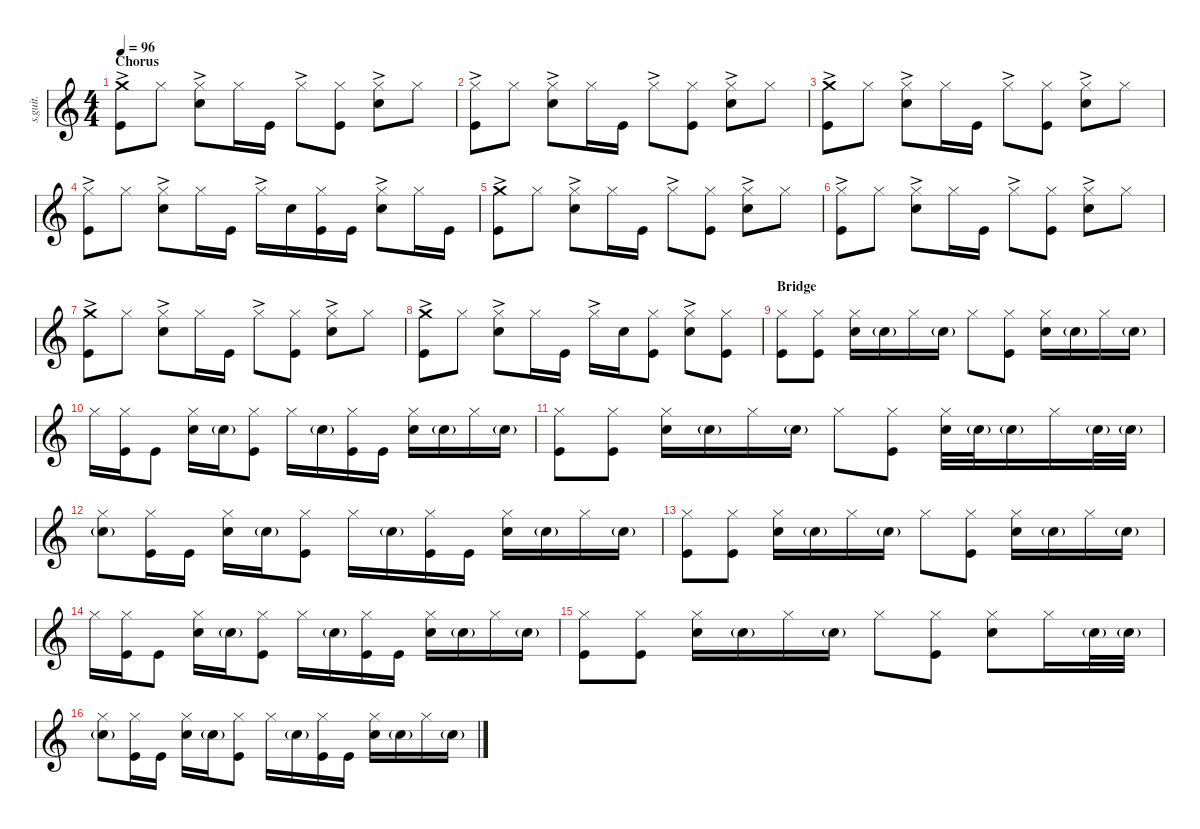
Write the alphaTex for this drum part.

\defaultSystemsLayout 4
\hideDynamics
\bracketExtendMode nobrackets
\track ("Chad Smith" "s.guit.") {instrument percussion}
\staff {score}
\articulation defaults
\ts (4 4)
\section ("" "Chorus")
\tempo 96
\clef g2
\ks c
("Crash medium (hit)"{ac} "Kick (hit)").8{dy f} "Hi-Hat (closed)".8 ("Hi-Hat (closed)"{ac} "Snare (hit) 2").8 "Hi-Hat (closed)".16 "Kick (hit)".16 "Hi-Hat (closed)"{ac}.8 ("Hi-Hat (closed)" "Kick (hit)").8 ("Hi-Hat (closed)"{ac} "Snare (hit) 2").8 "Hi-Hat (closed)".8 |
("Hi-Hat (closed)"{ac} "Kick (hit)").8 "Hi-Hat (closed)".8 ("Hi-Hat (closed)"{ac} "Snare (hit) 2").8 "Hi-Hat (closed)".16 "Kick (hit)".16 "Hi-Hat (closed)"{ac}.8 ("Hi-Hat (closed)" "Kick (hit)").8 ("Hi-Hat (closed)"{ac} "Snare (hit) 2").8 "Hi-Hat (closed)".8 |
("Crash medium (hit)"{ac} "Kick (hit)").8 "Hi-Hat (closed)".8 ("Hi-Hat (closed)"{ac} "Snare (hit) 2").8 "Hi-Hat (closed)".16 "Kick (hit)".16 "Hi-Hat (closed)"{ac}.8 ("Hi-Hat (closed)" "Kick (hit)").8 ("Hi-Hat (closed)"{ac} "Snare (hit) 2").8 "Hi-Hat (closed)".8 |
("Hi-Hat (closed)"{ac} "Kick (hit)").8 "Hi-Hat (closed)".8 ("Hi-Hat (closed)"{ac} "Snare (hit) 2").8 "Hi-Hat (closed)".16 "Kick (hit)".16 "Hi-Hat (closed)"{ac}.16 "Snare (hit) 2".16 ("Hi-Hat (closed)" "Kick (hit)").16 "Kick (hit)".16 ("Hi-Hat (closed)"{ac} "Snare (hit) 2").8 "Hi-Hat (closed)".16 "Kick (hit)".16 |
("Crash medium (hit)"{ac} "Kick (hit)").8 "Hi-Hat (closed)".8 ("Hi-Hat (closed)"{ac} "Snare (hit) 2").8 "Hi-Hat (closed)".16 "Kick (hit)".16 "Hi-Hat (closed)"{ac}.8 ("Hi-Hat (closed)" "Kick (hit)").8 ("Hi-Hat (closed)"{ac} "Snare (hit) 2").8 "Hi-Hat (closed)".8 |
("Hi-Hat (closed)"{ac} "Kick (hit)").8 "Hi-Hat (closed)".8 ("Hi-Hat (closed)"{ac} "Snare (hit) 2").8 "Hi-Hat (closed)".16 "Kick (hit)".16 "Hi-Hat (closed)"{ac}.8 ("Hi-Hat (closed)" "Kick (hit)").8 ("Hi-Hat (closed)"{ac} "Snare (hit) 2").8 "Hi-Hat (closed)".8 |
("Crash medium (hit)"{ac} "Kick (hit)").8 "Hi-Hat (closed)".8 ("Hi-Hat (closed)"{ac} "Snare (hit) 2").8 "Hi-Hat (closed)".16 "Kick (hit)".16 "Hi-Hat (closed)"{ac}.8 ("Hi-Hat (closed)" "Kick (hit)").8 ("Hi-Hat (closed)"{ac} "Snare (hit) 2").8 "Hi-Hat (closed)".8 |
("Crash medium (hit)"{ac} "Kick (hit)").8 "Hi-Hat (closed)".8 ("Hi-Hat (closed)"{ac} "Snare (hit) 2").8 "Hi-Hat (closed)".16 "Kick (hit)".16 "Hi-Hat (closed)"{ac}.16 "Snare (hit) 2".16 ("Hi-Hat (closed)" "Kick (hit)").8 ("Hi-Hat (closed)"{ac} "Snare (hit) 2").8 ("Hi-Hat (closed)" "Kick (hit)").8 |
\section ("" "Bridge")
("Hi-Hat (closed)" "Kick (hit)").8 ("Hi-Hat (closed)" "Kick (hit)").8 ("Hi-Hat (closed)" "Snare (hit) 2").16 "Snare (hit) 2"{g}.16{dy ppp} "Hi-Hat (closed)".16{dy f} "Snare (hit) 2"{g}.16{dy ppp} "Hi-Hat (closed)".8{dy f} ("Hi-Hat (closed)" "Kick (hit)").8 ("Hi-Hat (closed)" "Snare (hit) 2").16 "Snare (hit) 2"{g}.16{dy ppp} "Hi-Hat (closed)".16{dy f} "Snare (hit) 2"{g}.16{dy ppp} |
"Hi-Hat (closed)".16{dy f} ("Hi-Hat (closed)" "Kick (hit)").16 "Kick (hit)".8 ("Hi-Hat (closed)" "Snare (hit) 2").16 "Snare (hit) 2"{g}.16{dy ppp} ("Hi-Hat (closed)" "Kick (hit)").8{dy f} "Hi-Hat (closed)".16 "Snare (hit) 2"{g}.16{dy ppp} ("Hi-Hat (closed)" "Kick (hit)").16{dy f} "Kick (hit)".16 ("Hi-Hat (closed)" "Snare (hit) 2").16 "Snare (hit) 2"{g}.16{dy ppp} "Hi-Hat (closed)".16{dy f} "Snare (hit) 2"{g}.16{dy ppp} |
("Hi-Hat (closed)" "Kick (hit)").8{dy f} ("Hi-Hat (closed)" "Kick (hit)").8 ("Hi-Hat (closed)" "Snare (hit) 2").16 "Snare (hit) 2"{g}.16{dy ppp} "Hi-Hat (closed)".16{dy f} "Snare (hit) 2"{g}.16{dy ppp} "Hi-Hat (closed)".8{dy f} ("Hi-Hat (closed)" "Kick (hit)").8 ("Hi-Hat (closed)" "Snare (hit) 2").32 "Snare (hit) 2"{g}.32{dy ppp} "Snare (hit) 2"{g}.16 "Hi-Hat (closed)".16{dy f} "Snare (hit) 2"{g}.32{dy ppp} "Snare (hit) 2"{g}.32 |
("Hi-Hat (closed)" "Snare (hit) 2"{g}).8 ("Hi-Hat (closed)" "Kick (hit)").16{dy f} "Kick (hit)".16 ("Hi-Hat (closed)" "Snare (hit) 2").16 "Snare (hit) 2"{g}.16{dy ppp} ("Hi-Hat (closed)" "Kick (hit)").8{dy f} "Hi-Hat (closed)".16 "Snare (hit) 2"{g}.16{dy ppp} ("Hi-Hat (closed)" "Kick (hit)").16{dy f} "Kick (hit)".16 ("Hi-Hat (closed)" "Snare (hit) 2").16 "Snare (hit) 2"{g}.16{dy ppp} "Hi-Hat (closed)".16{dy f} "Snare (hit) 2"{g}.16{dy ppp} |
("Hi-Hat (closed)" "Kick (hit)").8{dy f} ("Hi-Hat (closed)" "Kick (hit)").8 ("Hi-Hat (closed)" "Snare (hit) 2").16 "Snare (hit) 2"{g}.16{dy ppp} "Hi-Hat (closed)".16{dy f} "Snare (hit) 2"{g}.16{dy ppp} "Hi-Hat (closed)".8{dy f} ("Hi-Hat (closed)" "Kick (hit)").8 ("Hi-Hat (closed)" "Snare (hit) 2").16 "Snare (hit) 2"{g}.16{dy ppp} "Hi-Hat (closed)".16{dy f} "Snare (hit) 2"{g}.16{dy ppp} |
"Hi-Hat (closed)".16{dy f} ("Hi-Hat (closed)" "Kick (hit)").16 "Kick (hit)".8 ("Hi-Hat (closed)" "Snare (hit) 2").16 "Snare (hit) 2"{g}.16{dy ppp} ("Hi-Hat (closed)" "Kick (hit)").8{dy f} "Hi-Hat (closed)".16 "Snare (hit) 2"{g}.16{dy ppp} ("Hi-Hat (closed)" "Kick (hit)").16{dy f} "Kick (hit)".16 ("Hi-Hat (closed)" "Snare (hit) 2").16 "Snare (hit) 2"{g}.16{dy ppp} "Hi-Hat (closed)".16{dy f} "Snare (hit) 2"{g}.16{dy ppp} |
("Hi-Hat (closed)" "Kick (hit)").8{dy f} ("Hi-Hat (closed)" "Kick (hit)").8 ("Hi-Hat (closed)" "Snare (hit) 2").16 "Snare (hit) 2"{g}.16{dy ppp} "Hi-Hat (closed)".16{dy f} "Snare (hit) 2"{g}.16{dy ppp} "Hi-Hat (closed)".8{dy f} ("Hi-Hat (closed)" "Kick (hit)").8 ("Hi-Hat (closed)" "Snare (hit) 2").8 "Hi-Hat (closed)".16 "Snare (hit) 2"{g}.32{dy ppp} "Snare (hit) 2"{g}.32 |
("Hi-Hat (closed)" "Snare (hit) 2"{g}).8 ("Hi-Hat (closed)" "Kick (hit)").16{dy f} "Kick (hit)".16 ("Hi-Hat (closed)" "Snare (hit) 2").16 "Snare (hit) 2"{g}.16{dy ppp} ("Hi-Hat (closed)" "Kick (hit)").8{dy f} "Hi-Hat (closed)".16 "Snare (hit) 2"{g}.16{dy ppp} ("Hi-Hat (closed)" "Kick (hit)").16{dy f} "Kick (hit)".16 ("Hi-Hat (closed)" "Snare (hit) 2").16 "Snare (hit) 2"{g}.16{dy ppp} "Hi-Hat (closed)".16{dy f} "Snare (hit) 2"{g}.16{dy ppp}
